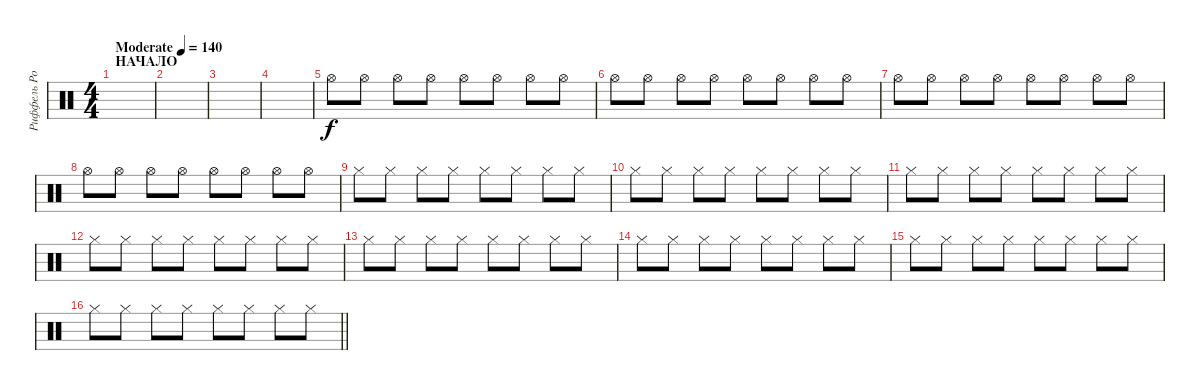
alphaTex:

\track ("Риффель Роман (хэты)" "Риффель Ро") {instrument percussion}
\staff {score}
\articulation defaults
\ts (4 4)
\section ("" "НАЧАЛО")
\tempo (140 "Moderate")
\clef neutral
\ks c
|
|
|
|
"Hi-Hat (open)".8 "Hi-Hat (open)".8 "Hi-Hat (open)".8 "Hi-Hat (open)".8 "Hi-Hat (open)".8 "Hi-Hat (open)".8 "Hi-Hat (open)".8 "Hi-Hat (open)".8 |
"Hi-Hat (open)".8 "Hi-Hat (open)".8 "Hi-Hat (open)".8 "Hi-Hat (open)".8 "Hi-Hat (open)".8 "Hi-Hat (open)".8 "Hi-Hat (open)".8 "Hi-Hat (open)".8 |
"Hi-Hat (open)".8 "Hi-Hat (open)".8 "Hi-Hat (open)".8 "Hi-Hat (open)".8 "Hi-Hat (open)".8 "Hi-Hat (open)".8 "Hi-Hat (open)".8 "Hi-Hat (open)".8 |
"Hi-Hat (open)".8 "Hi-Hat (open)".8 "Hi-Hat (open)".8 "Hi-Hat (open)".8 "Hi-Hat (open)".8 "Hi-Hat (open)".8 "Hi-Hat (open)".8 "Hi-Hat (open)".8 |
"Hi-Hat (closed)".8 "Hi-Hat (closed)".8 "Hi-Hat (closed)".8 "Hi-Hat (closed)".8 "Hi-Hat (closed)".8 "Hi-Hat (closed)".8 "Hi-Hat (closed)".8 "Hi-Hat (closed)".8 |
"Hi-Hat (closed)".8 "Hi-Hat (closed)".8 "Hi-Hat (closed)".8 "Hi-Hat (closed)".8 "Hi-Hat (closed)".8 "Hi-Hat (closed)".8 "Hi-Hat (closed)".8 "Hi-Hat (closed)".8 |
"Hi-Hat (closed)".8 "Hi-Hat (closed)".8 "Hi-Hat (closed)".8 "Hi-Hat (closed)".8 "Hi-Hat (closed)".8 "Hi-Hat (closed)".8 "Hi-Hat (closed)".8 "Hi-Hat (closed)".8 |
"Hi-Hat (closed)".8 "Hi-Hat (closed)".8 "Hi-Hat (closed)".8 "Hi-Hat (closed)".8 "Hi-Hat (closed)".8 "Hi-Hat (closed)".8 "Hi-Hat (closed)".8 "Hi-Hat (closed)".8 |
"Hi-Hat (closed)".8 "Hi-Hat (closed)".8 "Hi-Hat (closed)".8 "Hi-Hat (closed)".8 "Hi-Hat (closed)".8 "Hi-Hat (closed)".8 "Hi-Hat (closed)".8 "Hi-Hat (closed)".8 |
"Hi-Hat (closed)".8 "Hi-Hat (closed)".8 "Hi-Hat (closed)".8 "Hi-Hat (closed)".8 "Hi-Hat (closed)".8 "Hi-Hat (closed)".8 "Hi-Hat (closed)".8 "Hi-Hat (closed)".8 |
"Hi-Hat (closed)".8 "Hi-Hat (closed)".8 "Hi-Hat (closed)".8 "Hi-Hat (closed)".8 "Hi-Hat (closed)".8 "Hi-Hat (closed)".8 "Hi-Hat (closed)".8 "Hi-Hat (closed)".8 |
\barLineRight lightlight "Hi-Hat (closed)".8 "Hi-Hat (closed)".8 "Hi-Hat (closed)".8 "Hi-Hat (closed)".8 "Hi-Hat (closed)".8 "Hi-Hat (closed)".8 "Hi-Hat (closed)".8 "Hi-Hat (closed)".8
